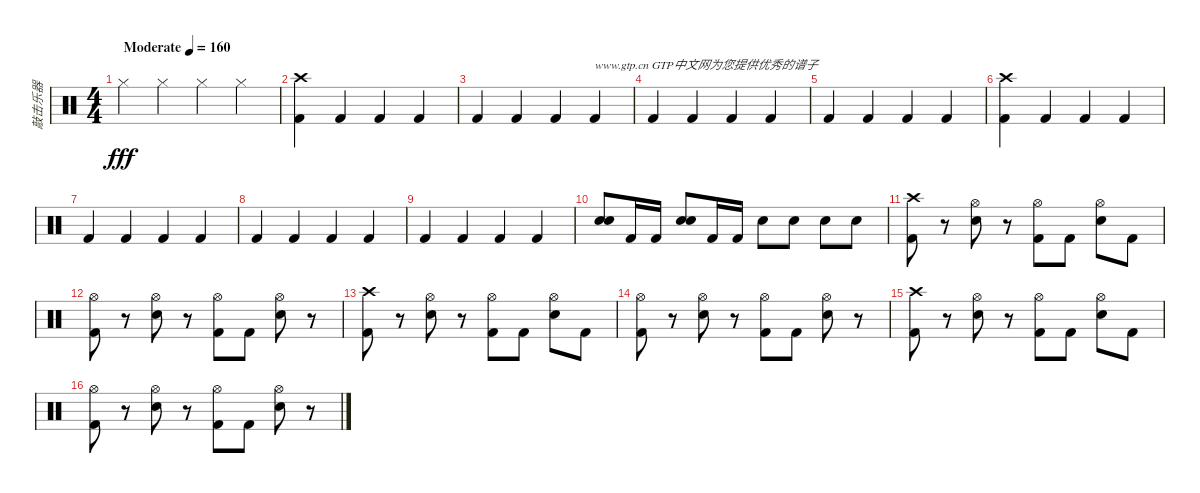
\track ("敲击乐器" "敲击乐器") {instrument percussion}
\staff {score}
\articulation defaults
\ts (4 4)
\tempo (160 "Moderate")
\clef neutral
\ks c "Hi-Hat (closed)".4{dy fff} "Hi-Hat (closed)".4 "Hi-Hat (closed)".4 "Hi-Hat (closed)".4
|
("Crash high (hit)" "Kick (hit) 2").4 "Kick (hit) 2".4 "Kick (hit) 2".4 "Kick (hit) 2".4 |
"Kick (hit) 2".4 "Kick (hit) 2".4 "Kick (hit) 2".4 "Kick (hit) 2".4{txt "www.gtp.cn GTP中文网为您提供优秀的谱子"} |
"Kick (hit) 2".4 "Kick (hit) 2".4 "Kick (hit) 2".4 "Kick (hit) 2".4 |
"Kick (hit) 2".4 "Kick (hit) 2".4 "Kick (hit) 2".4 "Kick (hit) 2".4 |
("Crash high (hit)" "Kick (hit) 2").4 "Kick (hit) 2".4 "Kick (hit) 2".4 "Kick (hit) 2".4 |
"Kick (hit) 2".4 "Kick (hit) 2".4 "Kick (hit) 2".4 "Kick (hit) 2".4 |
"Kick (hit) 2".4 "Kick (hit) 2".4 "Kick (hit) 2".4 "Kick (hit) 2".4 |
"Kick (hit) 2".4 "Kick (hit) 2".4 "Kick (hit) 2".4 "Kick (hit) 2".4 |
("Electric Snare (hit)" "Snare (hit) 2").8 "Kick (hit) 2".16 "Kick (hit) 2".16 ("Electric Snare (hit)" "Snare (hit) 2").8 "Kick (hit) 2".16 "Kick (hit) 2".16 "Electric Snare (hit)".8 "Electric Snare (hit)".8 "Electric Snare (hit)".8 "Electric Snare (hit)".8 |
("Crash high (hit)" "Kick (hit) 2").8 r.8 ("Hi-Hat (open)" "Electric Snare (hit)").8 r.8 ("Hi-Hat (open)" "Kick (hit) 2").8 "Kick (hit) 2".8 ("Hi-Hat (open)" "Electric Snare (hit)").8 "Kick (hit) 2".8 |
("Hi-Hat (open)" "Kick (hit) 2").8 r.8 ("Hi-Hat (open)" "Electric Snare (hit)").8 r.8 ("Hi-Hat (open)" "Kick (hit) 2").8 "Kick (hit) 2".8 ("Hi-Hat (open)" "Electric Snare (hit)").8 r.8 |
("Crash high (hit)" "Kick (hit) 2").8 r.8 ("Hi-Hat (open)" "Electric Snare (hit)").8 r.8 ("Hi-Hat (open)" "Kick (hit) 2").8 "Kick (hit) 2".8 ("Hi-Hat (open)" "Electric Snare (hit)").8 "Kick (hit) 2".8 |
("Hi-Hat (open)" "Kick (hit) 2").8 r.8 ("Hi-Hat (open)" "Electric Snare (hit)").8 r.8 ("Hi-Hat (open)" "Kick (hit) 2").8 "Kick (hit) 2".8 ("Hi-Hat (open)" "Electric Snare (hit)").8 r.8 |
("Crash high (hit)" "Kick (hit) 2").8 r.8 ("Hi-Hat (open)" "Electric Snare (hit)").8 r.8 ("Hi-Hat (open)" "Kick (hit) 2").8 "Kick (hit) 2".8 ("Hi-Hat (open)" "Electric Snare (hit)").8 "Kick (hit) 2".8 |
("Hi-Hat (open)" "Kick (hit) 2").8 r.8 ("Hi-Hat (open)" "Electric Snare (hit)").8 r.8 ("Hi-Hat (open)" "Kick (hit) 2").8 "Kick (hit) 2".8 ("Hi-Hat (open)" "Electric Snare (hit)").8 r.8
